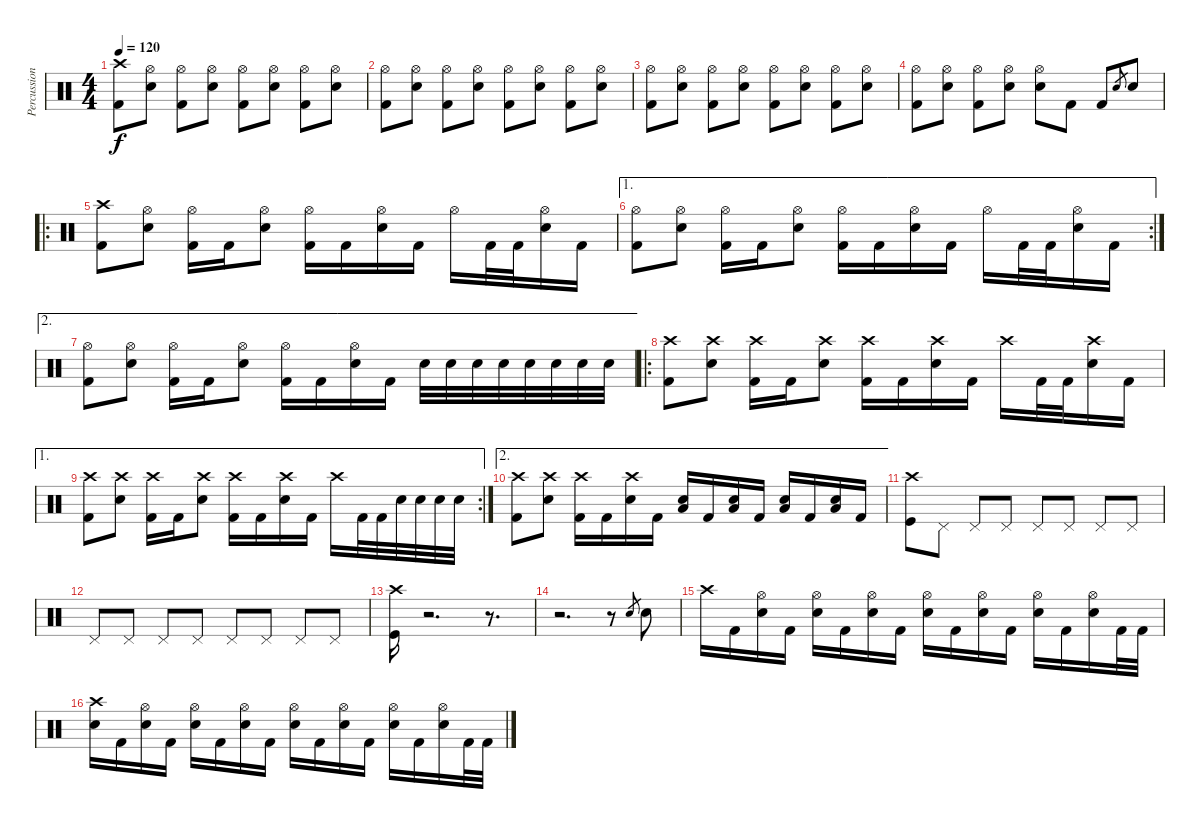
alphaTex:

\track ("Percussions" "Percussion") {instrument percussion}
\staff {score}
\articulation defaults
\ts (4 4)
\tempo 120
\clef neutral
\ks c
("Crash high (hit)" "Kick (hit) 2").8{dy f} ("Hi-Hat (open)" "Snare (hit) 2").8 ("Hi-Hat (open)" "Kick (hit) 2").8 ("Hi-Hat (open)" "Snare (hit) 2").8 ("Hi-Hat (open)" "Kick (hit) 2").8 ("Hi-Hat (open)" "Snare (hit) 2").8 ("Hi-Hat (open)" "Kick (hit) 2").8 ("Hi-Hat (open)" "Snare (hit) 2").8 |
("Hi-Hat (open)" "Kick (hit) 2").8 ("Hi-Hat (open)" "Snare (hit) 2").8 ("Hi-Hat (open)" "Kick (hit) 2").8 ("Hi-Hat (open)" "Snare (hit) 2").8 ("Hi-Hat (open)" "Kick (hit) 2").8 ("Hi-Hat (open)" "Snare (hit) 2").8 ("Hi-Hat (open)" "Kick (hit) 2").8 ("Hi-Hat (open)" "Snare (hit) 2").8 |
("Hi-Hat (open)" "Kick (hit) 2").8 ("Hi-Hat (open)" "Snare (hit) 2").8 ("Hi-Hat (open)" "Kick (hit) 2").8 ("Hi-Hat (open)" "Snare (hit) 2").8 ("Hi-Hat (open)" "Kick (hit) 2").8 ("Hi-Hat (open)" "Snare (hit) 2").8 ("Hi-Hat (open)" "Kick (hit) 2").8 ("Hi-Hat (open)" "Snare (hit) 2").8 |
("Hi-Hat (open)" "Kick (hit) 2").8 ("Hi-Hat (open)" "Snare (hit) 2").8 ("Hi-Hat (open)" "Kick (hit) 2").8 ("Hi-Hat (open)" "Snare (hit) 2").8 ("Hi-Hat (open)" "Snare (hit) 2").8 "Kick (hit) 2".8 "Kick (hit) 2".8 "Snare (hit) 2".8{gr} "Snare (hit) 2".8 |
\ro
("Crash high (hit)" "Kick (hit) 2").8 ("Hi-Hat (open)" "Snare (hit) 2").8 ("Hi-Hat (open)" "Kick (hit) 2").16 "Kick (hit) 2".16 ("Hi-Hat (open)" "Snare (hit) 2").8 ("Hi-Hat (open)" "Kick (hit) 2").16 "Kick (hit) 2".16 ("Hi-Hat (open)" "Snare (hit) 2").16 "Kick (hit) 2".16 "Hi-Hat (open)".16 "Kick (hit) 2".32 "Kick (hit) 2".32 ("Hi-Hat (open)" "Snare (hit) 2").16 "Kick (hit) 2".16 |
\ae 1
\rc 2
("Hi-Hat (open)" "Kick (hit) 2").8 ("Hi-Hat (open)" "Snare (hit) 2").8 ("Hi-Hat (open)" "Kick (hit) 2").16 "Kick (hit) 2".16 ("Hi-Hat (open)" "Snare (hit) 2").8 ("Hi-Hat (open)" "Kick (hit) 2").16 "Kick (hit) 2".16 ("Hi-Hat (open)" "Snare (hit) 2").16 "Kick (hit) 2".16 "Hi-Hat (open)".16 "Kick (hit) 2".32 "Kick (hit) 2".32 ("Hi-Hat (open)" "Snare (hit) 2").16 "Kick (hit) 2".16 |
\ae 2
("Hi-Hat (open)" "Kick (hit) 2").8 ("Hi-Hat (open)" "Snare (hit) 2").8 ("Hi-Hat (open)" "Kick (hit) 2").16 "Kick (hit) 2".16 ("Hi-Hat (open)" "Snare (hit) 2").8 ("Hi-Hat (open)" "Kick (hit) 2").16 "Kick (hit) 2".16 ("Hi-Hat (open)" "Snare (hit) 2").16 "Kick (hit) 2".16 "Snare (hit) 2".32 "Snare (hit) 2".32 "Snare (hit) 2".32 "Snare (hit) 2".32 "Snare (hit) 2".32 "Snare (hit) 2".32 "Snare (hit) 2".32 "Snare (hit) 2".32 |
\ro
("Crash high (hit)" "Kick (hit) 2").8 ("Crash high (hit)" "Snare (hit) 2").8 ("Crash high (hit)" "Kick (hit) 2").16 "Kick (hit) 2".16 ("Crash high (hit)" "Snare (hit) 2").8 ("Crash high (hit)" "Kick (hit) 2").16 "Kick (hit) 2".16 ("Crash high (hit)" "Snare (hit) 2").16 "Kick (hit) 2".16 "Crash high (hit)".16 "Kick (hit) 2".32 "Kick (hit) 2".32 ("Crash high (hit)" "Snare (hit) 2").16 "Kick (hit) 2".16 |
\ae 1
\rc 2
("Crash high (hit)" "Kick (hit) 2").8 ("Crash high (hit)" "Snare (hit) 2").8 ("Crash high (hit)" "Kick (hit) 2").16 "Kick (hit) 2".16 ("Crash high (hit)" "Snare (hit) 2").8 ("Crash high (hit)" "Kick (hit) 2").16 "Kick (hit) 2".16 ("Crash high (hit)" "Snare (hit) 2").16 "Kick (hit) 2".16 "Crash high (hit)".16 "Kick (hit) 2".32 "Kick (hit) 2".32 "Snare (hit) 2".32 "Snare (hit) 2".32 "Snare (hit) 2".32 "Snare (hit) 2".32 |
\ae 2
("Crash high (hit)" "Kick (hit) 2").8 ("Crash high (hit)" "Snare (hit) 2").8 ("Crash high (hit)" "Kick (hit) 2").16 "Kick (hit) 2".16 ("Crash high (hit)" "Snare (hit) 2").16 "Kick (hit) 2".16 ("Low Tom (hit)" "Snare (hit) 2").16 "Kick (hit) 2".16 ("Low Tom (hit)" "Snare (hit) 2").16 "Kick (hit) 2".16 ("Low Tom (hit)" "Snare (hit) 2").16 "Kick (hit) 2".16 ("Low Tom (hit)" "Snare (hit) 2").16 "Kick (hit) 2".16 |
("Crash high (hit)" "Kick (hit)").8 "Pedal Hi-Hat (hit)".8 "Pedal Hi-Hat (hit)".8 "Pedal Hi-Hat (hit)".8 "Pedal Hi-Hat (hit)".8 "Pedal Hi-Hat (hit)".8 "Pedal Hi-Hat (hit)".8 "Pedal Hi-Hat (hit)".8 |
"Pedal Hi-Hat (hit)".8 "Pedal Hi-Hat (hit)".8 "Pedal Hi-Hat (hit)".8 "Pedal Hi-Hat (hit)".8 "Pedal Hi-Hat (hit)".8 "Pedal Hi-Hat (hit)".8 "Pedal Hi-Hat (hit)".8 "Pedal Hi-Hat (hit)".8 |
("Crash high (hit)" "Kick (hit)").16 r.2{d} r.8{d} |
r.2{d} r.8 "Snare (hit) 2".8{gr} "Snare (hit) 2".8 |
"Crash high (hit)".16 "Kick (hit) 2".16 ("Hi-Hat (open)" "Snare (hit) 2").16 "Kick (hit) 2".16 ("Hi-Hat (open)" "Snare (hit) 2").16 "Kick (hit) 2".16 ("Hi-Hat (open)" "Snare (hit) 2").16 "Kick (hit) 2".16 ("Hi-Hat (open)" "Snare (hit) 2").16 "Kick (hit) 2".16 ("Hi-Hat (open)" "Snare (hit) 2").16 "Kick (hit) 2".16 ("Hi-Hat (open)" "Snare (hit) 2").16 "Kick (hit) 2".16 ("Hi-Hat (open)" "Snare (hit) 2").16 "Kick (hit) 2".32 "Kick (hit) 2".32 |
("Crash high (hit)" "Snare (hit) 2").16 "Kick (hit) 2".16 ("Hi-Hat (open)" "Snare (hit) 2").16 "Kick (hit) 2".16 ("Hi-Hat (open)" "Snare (hit) 2").16 "Kick (hit) 2".16 ("Hi-Hat (open)" "Snare (hit) 2").16 "Kick (hit) 2".16 ("Hi-Hat (open)" "Snare (hit) 2").16 "Kick (hit) 2".16 ("Hi-Hat (open)" "Snare (hit) 2").16 "Kick (hit) 2".16 ("Hi-Hat (open)" "Snare (hit) 2").16 "Kick (hit) 2".16 ("Hi-Hat (open)" "Snare (hit) 2").16 "Kick (hit) 2".32 "Kick (hit) 2".32
